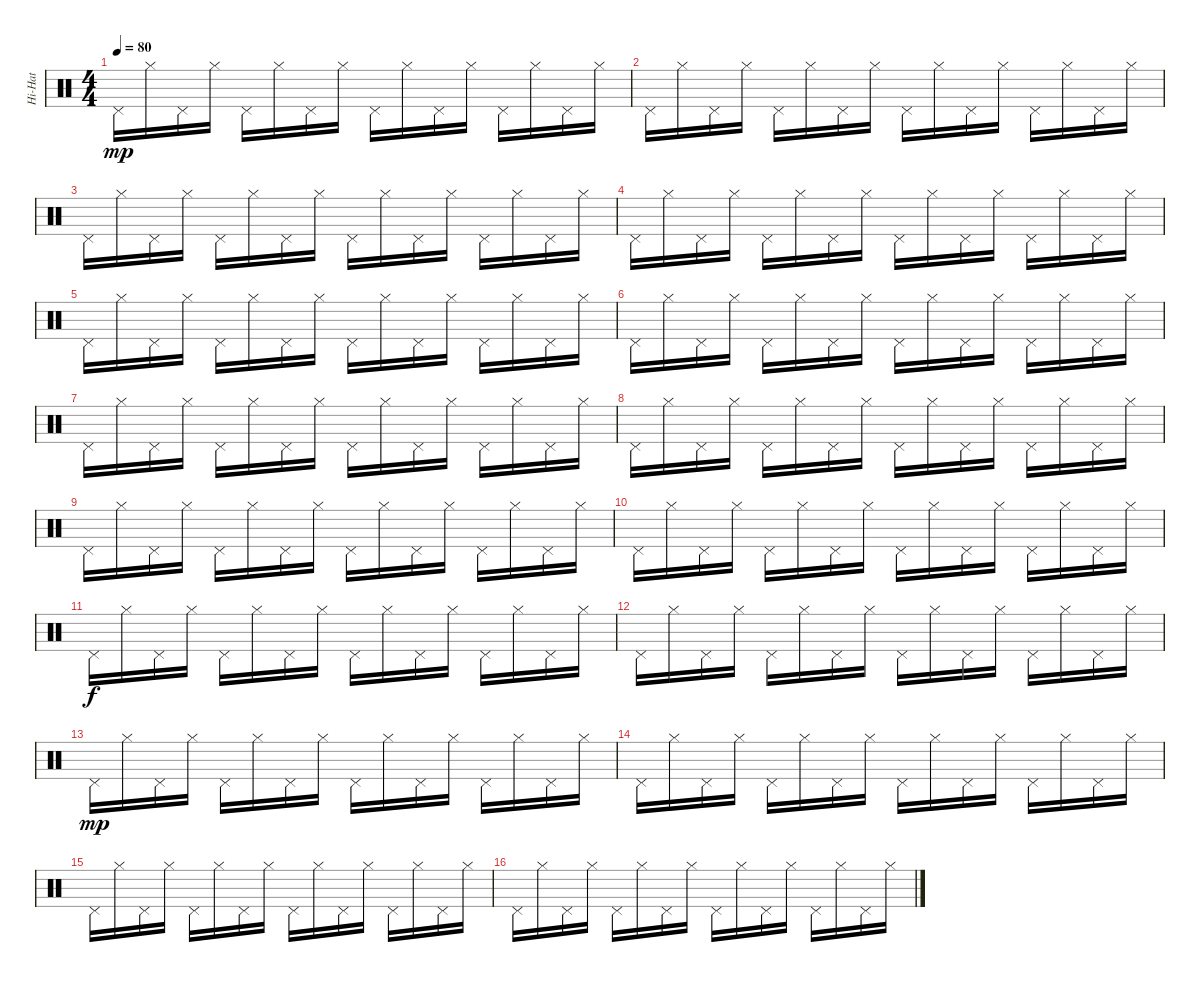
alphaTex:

\track ("Hi-Hat" "Hi-Hat") {instrument percussion}
\staff {score}
\articulation defaults
\ts (4 4)
\tempo 80
\clef neutral
\ks c "Pedal Hi-Hat (hit)".16{dy mp} "Hi-Hat (closed)".16 "Pedal Hi-Hat (hit)".16 "Hi-Hat (closed)".16 "Pedal Hi-Hat (hit)".16 "Hi-Hat (closed)".16 "Pedal Hi-Hat (hit)".16 "Hi-Hat (closed)".16 "Pedal Hi-Hat (hit)".16 "Hi-Hat (closed)".16 "Pedal Hi-Hat (hit)".16 "Hi-Hat (closed)".16 "Pedal Hi-Hat (hit)".16 "Hi-Hat (closed)".16 "Pedal Hi-Hat (hit)".16 "Hi-Hat (closed)".16
|
"Pedal Hi-Hat (hit)".16 "Hi-Hat (closed)".16 "Pedal Hi-Hat (hit)".16 "Hi-Hat (closed)".16 "Pedal Hi-Hat (hit)".16 "Hi-Hat (closed)".16 "Pedal Hi-Hat (hit)".16 "Hi-Hat (closed)".16 "Pedal Hi-Hat (hit)".16 "Hi-Hat (closed)".16 "Pedal Hi-Hat (hit)".16 "Hi-Hat (closed)".16 "Pedal Hi-Hat (hit)".16 "Hi-Hat (closed)".16 "Pedal Hi-Hat (hit)".16 "Hi-Hat (closed)".16 |
"Pedal Hi-Hat (hit)".16 "Hi-Hat (closed)".16 "Pedal Hi-Hat (hit)".16 "Hi-Hat (closed)".16 "Pedal Hi-Hat (hit)".16 "Hi-Hat (closed)".16 "Pedal Hi-Hat (hit)".16 "Hi-Hat (closed)".16 "Pedal Hi-Hat (hit)".16 "Hi-Hat (closed)".16 "Pedal Hi-Hat (hit)".16 "Hi-Hat (closed)".16 "Pedal Hi-Hat (hit)".16 "Hi-Hat (closed)".16 "Pedal Hi-Hat (hit)".16 "Hi-Hat (closed)".16 |
"Pedal Hi-Hat (hit)".16 "Hi-Hat (closed)".16 "Pedal Hi-Hat (hit)".16 "Hi-Hat (closed)".16 "Pedal Hi-Hat (hit)".16 "Hi-Hat (closed)".16 "Pedal Hi-Hat (hit)".16 "Hi-Hat (closed)".16 "Pedal Hi-Hat (hit)".16 "Hi-Hat (closed)".16 "Pedal Hi-Hat (hit)".16 "Hi-Hat (closed)".16 "Pedal Hi-Hat (hit)".16 "Hi-Hat (closed)".16 "Pedal Hi-Hat (hit)".16 "Hi-Hat (closed)".16 |
"Pedal Hi-Hat (hit)".16 "Hi-Hat (closed)".16 "Pedal Hi-Hat (hit)".16 "Hi-Hat (closed)".16 "Pedal Hi-Hat (hit)".16 "Hi-Hat (closed)".16 "Pedal Hi-Hat (hit)".16 "Hi-Hat (closed)".16 "Pedal Hi-Hat (hit)".16 "Hi-Hat (closed)".16 "Pedal Hi-Hat (hit)".16 "Hi-Hat (closed)".16 "Pedal Hi-Hat (hit)".16 "Hi-Hat (closed)".16 "Pedal Hi-Hat (hit)".16 "Hi-Hat (closed)".16 |
"Pedal Hi-Hat (hit)".16 "Hi-Hat (closed)".16 "Pedal Hi-Hat (hit)".16 "Hi-Hat (closed)".16 "Pedal Hi-Hat (hit)".16 "Hi-Hat (closed)".16 "Pedal Hi-Hat (hit)".16 "Hi-Hat (closed)".16 "Pedal Hi-Hat (hit)".16 "Hi-Hat (closed)".16 "Pedal Hi-Hat (hit)".16 "Hi-Hat (closed)".16 "Pedal Hi-Hat (hit)".16 "Hi-Hat (closed)".16 "Pedal Hi-Hat (hit)".16 "Hi-Hat (closed)".16 |
"Pedal Hi-Hat (hit)".16 "Hi-Hat (closed)".16 "Pedal Hi-Hat (hit)".16 "Hi-Hat (closed)".16 "Pedal Hi-Hat (hit)".16 "Hi-Hat (closed)".16 "Pedal Hi-Hat (hit)".16 "Hi-Hat (closed)".16 "Pedal Hi-Hat (hit)".16 "Hi-Hat (closed)".16 "Pedal Hi-Hat (hit)".16 "Hi-Hat (closed)".16 "Pedal Hi-Hat (hit)".16 "Hi-Hat (closed)".16 "Pedal Hi-Hat (hit)".16 "Hi-Hat (closed)".16 |
"Pedal Hi-Hat (hit)".16 "Hi-Hat (closed)".16 "Pedal Hi-Hat (hit)".16 "Hi-Hat (closed)".16 "Pedal Hi-Hat (hit)".16 "Hi-Hat (closed)".16 "Pedal Hi-Hat (hit)".16 "Hi-Hat (closed)".16 "Pedal Hi-Hat (hit)".16 "Hi-Hat (closed)".16 "Pedal Hi-Hat (hit)".16 "Hi-Hat (closed)".16 "Pedal Hi-Hat (hit)".16 "Hi-Hat (closed)".16 "Pedal Hi-Hat (hit)".16 "Hi-Hat (closed)".16 |
"Pedal Hi-Hat (hit)".16 "Hi-Hat (closed)".16 "Pedal Hi-Hat (hit)".16 "Hi-Hat (closed)".16 "Pedal Hi-Hat (hit)".16 "Hi-Hat (closed)".16 "Pedal Hi-Hat (hit)".16 "Hi-Hat (closed)".16 "Pedal Hi-Hat (hit)".16 "Hi-Hat (closed)".16 "Pedal Hi-Hat (hit)".16 "Hi-Hat (closed)".16 "Pedal Hi-Hat (hit)".16 "Hi-Hat (closed)".16 "Pedal Hi-Hat (hit)".16 "Hi-Hat (closed)".16 |
"Pedal Hi-Hat (hit)".16 "Hi-Hat (closed)".16 "Pedal Hi-Hat (hit)".16 "Hi-Hat (closed)".16 "Pedal Hi-Hat (hit)".16 "Hi-Hat (closed)".16 "Pedal Hi-Hat (hit)".16 "Hi-Hat (closed)".16 "Pedal Hi-Hat (hit)".16 "Hi-Hat (closed)".16 "Pedal Hi-Hat (hit)".16 "Hi-Hat (closed)".16 "Pedal Hi-Hat (hit)".16 "Hi-Hat (closed)".16 "Pedal Hi-Hat (hit)".16 "Hi-Hat (closed)".16 |
"Pedal Hi-Hat (hit)".16{dy f} "Hi-Hat (closed)".16 "Pedal Hi-Hat (hit)".16 "Hi-Hat (closed)".16 "Pedal Hi-Hat (hit)".16 "Hi-Hat (closed)".16 "Pedal Hi-Hat (hit)".16 "Hi-Hat (closed)".16 "Pedal Hi-Hat (hit)".16 "Hi-Hat (closed)".16 "Pedal Hi-Hat (hit)".16 "Hi-Hat (closed)".16 "Pedal Hi-Hat (hit)".16 "Hi-Hat (closed)".16 "Pedal Hi-Hat (hit)".16 "Hi-Hat (closed)".16 |
"Pedal Hi-Hat (hit)".16 "Hi-Hat (closed)".16 "Pedal Hi-Hat (hit)".16 "Hi-Hat (closed)".16 "Pedal Hi-Hat (hit)".16 "Hi-Hat (closed)".16 "Pedal Hi-Hat (hit)".16 "Hi-Hat (closed)".16 "Pedal Hi-Hat (hit)".16 "Hi-Hat (closed)".16 "Pedal Hi-Hat (hit)".16 "Hi-Hat (closed)".16 "Pedal Hi-Hat (hit)".16 "Hi-Hat (closed)".16 "Pedal Hi-Hat (hit)".16 "Hi-Hat (closed)".16 |
"Pedal Hi-Hat (hit)".16{dy mp} "Hi-Hat (closed)".16 "Pedal Hi-Hat (hit)".16 "Hi-Hat (closed)".16 "Pedal Hi-Hat (hit)".16 "Hi-Hat (closed)".16 "Pedal Hi-Hat (hit)".16 "Hi-Hat (closed)".16 "Pedal Hi-Hat (hit)".16 "Hi-Hat (closed)".16 "Pedal Hi-Hat (hit)".16 "Hi-Hat (closed)".16 "Pedal Hi-Hat (hit)".16 "Hi-Hat (closed)".16 "Pedal Hi-Hat (hit)".16 "Hi-Hat (closed)".16 |
"Pedal Hi-Hat (hit)".16 "Hi-Hat (closed)".16 "Pedal Hi-Hat (hit)".16 "Hi-Hat (closed)".16 "Pedal Hi-Hat (hit)".16 "Hi-Hat (closed)".16 "Pedal Hi-Hat (hit)".16 "Hi-Hat (closed)".16 "Pedal Hi-Hat (hit)".16 "Hi-Hat (closed)".16 "Pedal Hi-Hat (hit)".16 "Hi-Hat (closed)".16 "Pedal Hi-Hat (hit)".16 "Hi-Hat (closed)".16 "Pedal Hi-Hat (hit)".16 "Hi-Hat (closed)".16 |
"Pedal Hi-Hat (hit)".16 "Hi-Hat (closed)".16 "Pedal Hi-Hat (hit)".16 "Hi-Hat (closed)".16 "Pedal Hi-Hat (hit)".16 "Hi-Hat (closed)".16 "Pedal Hi-Hat (hit)".16 "Hi-Hat (closed)".16 "Pedal Hi-Hat (hit)".16 "Hi-Hat (closed)".16 "Pedal Hi-Hat (hit)".16 "Hi-Hat (closed)".16 "Pedal Hi-Hat (hit)".16 "Hi-Hat (closed)".16 "Pedal Hi-Hat (hit)".16 "Hi-Hat (closed)".16 |
"Pedal Hi-Hat (hit)".16 "Hi-Hat (closed)".16 "Pedal Hi-Hat (hit)".16 "Hi-Hat (closed)".16 "Pedal Hi-Hat (hit)".16 "Hi-Hat (closed)".16 "Pedal Hi-Hat (hit)".16 "Hi-Hat (closed)".16 "Pedal Hi-Hat (hit)".16 "Hi-Hat (closed)".16 "Pedal Hi-Hat (hit)".16 "Hi-Hat (closed)".16 "Pedal Hi-Hat (hit)".16 "Hi-Hat (closed)".16 "Pedal Hi-Hat (hit)".16 "Hi-Hat (closed)".16
